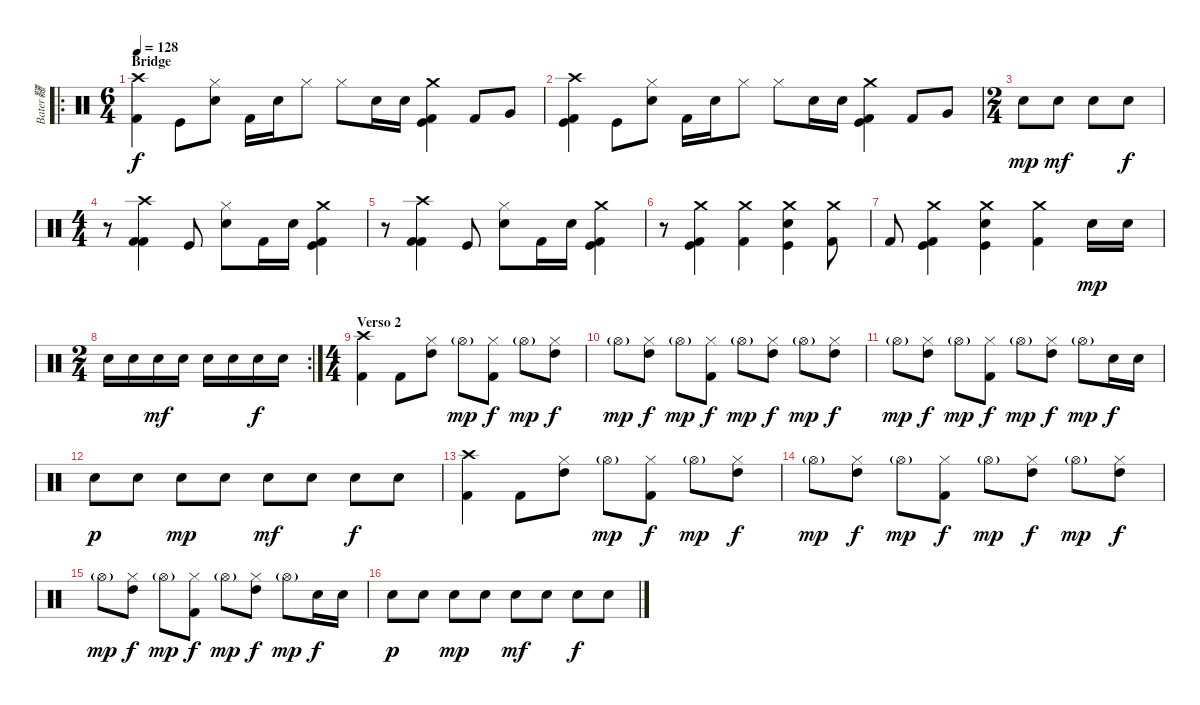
\track ("Bater韆" "Bater韆") {instrument percussion}
\staff {score}
\articulation defaults
\ro
\ts (6 4)
\section ("" "Bridge")
\tempo 128
\clef neutral
\ks c
("Crash high (hit)" "Kick (hit) 2").4{dy f} "Kick (hit)".8 ("Hi-Hat (closed)" "Electric Snare (hit)").8 "Kick (hit) 2".16 "Snare (hit) 2".16 "Hi-Hat (closed)".8 "Hi-Hat (closed)".8 "Electric Snare (hit)".16 "Electric Snare (hit)".16 ("Crash medium (hit)" "Kick (hit)" "Kick (hit) 2").4 "Kick (hit) 2".8 "Very Low Tom (hit)".8 |
("Crash high (hit)" "Kick (hit)" "Kick (hit) 2").4 "Kick (hit)".8 ("Hi-Hat (closed)" "Electric Snare (hit)").8 "Kick (hit) 2".16 "Snare (hit) 2".16 "Hi-Hat (closed)".8 "Hi-Hat (closed)".8 "Electric Snare (hit)".16 "Electric Snare (hit)".16 ("Crash medium (hit)" "Kick (hit)" "Kick (hit) 2").4 "Kick (hit) 2".8 "Very Low Tom (hit)".8 |
\ts (2 4)
"Electric Snare (hit)".8{dy mp} "Electric Snare (hit)".8{dy mf} "Electric Snare (hit)".8 "Electric Snare (hit)".8{dy f} |
\ts (4 4)
r.8 ("Crash high (hit)" "Kick (hit) 2" "Kick (hit) 2").4 "Kick (hit)".8 ("Hi-Hat (closed)" "Electric Snare (hit)").8 "Kick (hit) 2".16 "Snare (hit) 2".16 ("Crash medium (hit)" "Kick (hit)" "Kick (hit) 2").4 |
r.8 ("Crash high (hit)" "Kick (hit) 2" "Kick (hit) 2").4 "Kick (hit)".8 ("Hi-Hat (closed)" "Electric Snare (hit)").8 "Kick (hit) 2".16 "Snare (hit) 2".16 ("Crash medium (hit)" "Kick (hit)" "Kick (hit) 2").4 |
r.8 ("Crash medium (hit)" "Kick (hit)" "Kick (hit) 2").4 ("Crash medium (hit)" "Kick (hit) 2").4 ("Crash medium (hit)" "Electric Snare (hit)" "Kick (hit)").4 ("Crash medium (hit)" "Kick (hit) 2").8 |
"Kick (hit) 2".8 ("Crash medium (hit)" "Kick (hit)" "Kick (hit) 2").4 ("Crash medium (hit)" "Kick (hit)" "Electric Snare (hit)").4 ("Crash medium (hit)" "Kick (hit) 2").4 "Electric Snare (hit)".16{dy mp} "Electric Snare (hit)".16 |
\rc 2
\ts (2 4)
"Electric Snare (hit)".16 "Electric Snare (hit)".16 "Electric Snare (hit)".16{dy mf} "Electric Snare (hit)".16 "Electric Snare (hit)".16 "Electric Snare (hit)".16 "Electric Snare (hit)".16{dy f} "Electric Snare (hit)".16 |
\ts (4 4)
\section ("" "Verso 2")
("Crash high (hit)" "Kick (hit) 2").4 "Kick (hit) 2".8 ("Hi-Hat (closed)" "High Tom (hit)").8 "Hi-Hat (open)"{g}.8{dy mp} ("Hi-Hat (closed)" "Kick (hit) 2").8{dy f} "Hi-Hat (open)"{g}.8{dy mp} ("Hi-Hat (closed)" "High Tom (hit)").8{dy f} |
"Hi-Hat (open)"{g}.8{dy mp} ("Hi-Hat (closed)" "High Tom (hit)").8{dy f} "Hi-Hat (open)"{g}.8{dy mp} ("Hi-Hat (closed)" "Kick (hit) 2").8{dy f} "Hi-Hat (open)"{g}.8{dy mp} ("Hi-Hat (closed)" "High Tom (hit)").8{dy f} "Hi-Hat (open)"{g}.8{dy mp} ("Hi-Hat (closed)" "High Tom (hit)").8{dy f} |
"Hi-Hat (open)"{g}.8{dy mp} ("Hi-Hat (closed)" "High Tom (hit)").8{dy f} "Hi-Hat (open)"{g}.8{dy mp} ("Hi-Hat (closed)" "Kick (hit) 2").8{dy f} "Hi-Hat (open)"{g}.8{dy mp} ("Hi-Hat (closed)" "High Tom (hit)").8{dy f} "Hi-Hat (open)"{g}.8{dy mp} "Electric Snare (hit)".16{dy f} "Electric Snare (hit)".16 |
"Electric Snare (hit)".8{dy p} "Electric Snare (hit)".8 "Electric Snare (hit)".8{dy mp} "Electric Snare (hit)".8 "Electric Snare (hit)".8{dy mf} "Electric Snare (hit)".8 "Electric Snare (hit)".8{dy f} "Electric Snare (hit)".8 |
("Crash high (hit)" "Kick (hit) 2").4 "Kick (hit) 2".8 ("Hi-Hat (closed)" "High Tom (hit)").8 "Hi-Hat (open)"{g}.8{dy mp} ("Hi-Hat (closed)" "Kick (hit) 2").8{dy f} "Hi-Hat (open)"{g}.8{dy mp} ("Hi-Hat (closed)" "High Tom (hit)").8{dy f} |
"Hi-Hat (open)"{g}.8{dy mp} ("Hi-Hat (closed)" "High Tom (hit)").8{dy f} "Hi-Hat (open)"{g}.8{dy mp} ("Hi-Hat (closed)" "Kick (hit) 2").8{dy f} "Hi-Hat (open)"{g}.8{dy mp} ("Hi-Hat (closed)" "High Tom (hit)").8{dy f} "Hi-Hat (open)"{g}.8{dy mp} ("Hi-Hat (closed)" "High Tom (hit)").8{dy f} |
"Hi-Hat (open)"{g}.8{dy mp} ("Hi-Hat (closed)" "High Tom (hit)").8{dy f} "Hi-Hat (open)"{g}.8{dy mp} ("Hi-Hat (closed)" "Kick (hit) 2").8{dy f} "Hi-Hat (open)"{g}.8{dy mp} ("Hi-Hat (closed)" "High Tom (hit)").8{dy f} "Hi-Hat (open)"{g}.8{dy mp} "Electric Snare (hit)".16{dy f} "Electric Snare (hit)".16 |
"Electric Snare (hit)".8{dy p} "Electric Snare (hit)".8 "Electric Snare (hit)".8{dy mp} "Electric Snare (hit)".8 "Electric Snare (hit)".8{dy mf} "Electric Snare (hit)".8 "Electric Snare (hit)".8{dy f} "Electric Snare (hit)".8
